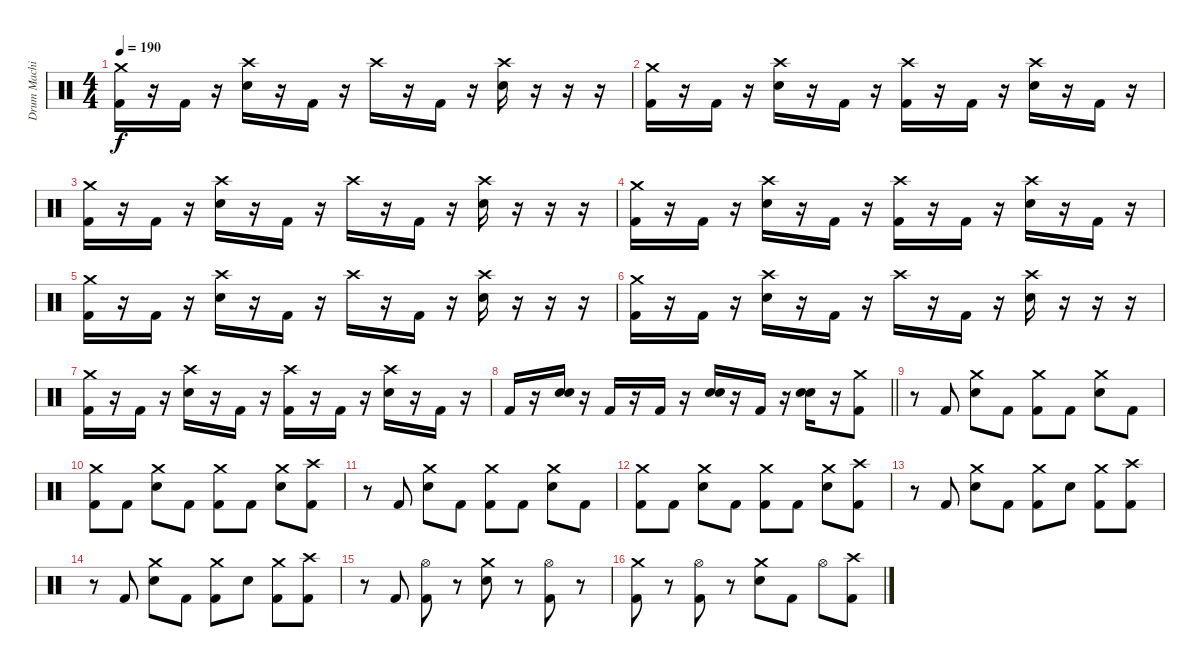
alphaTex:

\track ("Drum Machine Man" "Drum Machi") {instrument percussion}
\staff {score}
\articulation defaults
\ts (4 4)
\tempo 190
\clef neutral
\ks c
("Crash medium (hit)" "Kick (hit) 2").16{dy f} r.16 "Kick (hit) 2".16 r.16 ("Crash high (hit)" "Electric Snare (hit)").16 r.16 "Kick (hit) 2".16 r.16 "Crash high (hit)".16 r.16 "Kick (hit) 2".16 r.16 ("Crash high (hit)" "Electric Snare (hit)").16 r.16 r.16 r.16 |
("Crash medium (hit)" "Kick (hit) 2").16 r.16 "Kick (hit) 2".16 r.16 ("Crash high (hit)" "Electric Snare (hit)").16 r.16 "Kick (hit) 2".16 r.16 ("Crash high (hit)" "Kick (hit) 2").16 r.16 "Kick (hit) 2".16 r.16 ("Crash high (hit)" "Electric Snare (hit)").16 r.16 "Kick (hit) 2".16 r.16 |
("Crash medium (hit)" "Kick (hit) 2").16 r.16 "Kick (hit) 2".16 r.16 ("Crash high (hit)" "Electric Snare (hit)").16 r.16 "Kick (hit) 2".16 r.16 "Crash high (hit)".16 r.16 "Kick (hit) 2".16 r.16 ("Crash high (hit)" "Electric Snare (hit)").16 r.16 r.16 r.16 |
("Crash medium (hit)" "Kick (hit) 2").16 r.16 "Kick (hit) 2".16 r.16 ("Crash high (hit)" "Electric Snare (hit)").16 r.16 "Kick (hit) 2".16 r.16 ("Crash high (hit)" "Kick (hit) 2").16 r.16 "Kick (hit) 2".16 r.16 ("Crash high (hit)" "Electric Snare (hit)").16 r.16 "Kick (hit) 2".16 r.16 |
("Crash medium (hit)" "Kick (hit) 2").16 r.16 "Kick (hit) 2".16 r.16 ("Crash high (hit)" "Electric Snare (hit)").16 r.16 "Kick (hit) 2".16 r.16 "Crash high (hit)".16 r.16 "Kick (hit) 2".16 r.16 ("Crash high (hit)" "Electric Snare (hit)").16 r.16 r.16 r.16 |
("Crash medium (hit)" "Kick (hit) 2").16 r.16 "Kick (hit) 2".16 r.16 ("Crash high (hit)" "Electric Snare (hit)").16 r.16 "Kick (hit) 2".16 r.16 "Crash high (hit)".16 r.16 "Kick (hit) 2".16 r.16 ("Crash high (hit)" "Electric Snare (hit)").16 r.16 r.16 r.16 |
("Crash medium (hit)" "Kick (hit) 2").16 r.16 "Kick (hit) 2".16 r.16 ("Crash high (hit)" "Electric Snare (hit)").16 r.16 "Kick (hit) 2".16 r.16 ("Crash high (hit)" "Kick (hit) 2").16 r.16 "Kick (hit) 2".16 r.16 ("Crash high (hit)" "Electric Snare (hit)").16 r.16 "Kick (hit) 2".16 r.16 |
\barLineRight lightlight "Kick (hit) 2".16
r.16 ("Electric Snare (hit)" "Electric Snare (hit)").16{bd 60} r.16 "Kick (hit) 2".16 r.16 "Kick (hit) 2".16 r.16 ("Electric Snare (hit)" "Electric Snare (hit)").16{bd 60} r.16 "Kick (hit) 2".16 r.16 ("Electric Snare (hit)" "Electric Snare (hit)").16{bd 60} r.16 ("Crash medium (hit)" "Kick (hit) 2").8 |
r.8 "Kick (hit) 2".8 ("Crash medium (hit)" "Electric Snare (hit)").8 "Kick (hit) 2".8 ("Crash medium (hit)" "Kick (hit) 2").8 "Kick (hit) 2".8 ("Crash medium (hit)" "Electric Snare (hit)").8 "Kick (hit) 2".8 |
("Crash medium (hit)" "Kick (hit) 2").8 "Kick (hit) 2".8 ("Crash medium (hit)" "Electric Snare (hit)").8 "Kick (hit) 2".8 ("Crash medium (hit)" "Kick (hit) 2").8 "Kick (hit) 2".8 ("Crash medium (hit)" "Electric Snare (hit)").8 ("Crash high (hit)" "Kick (hit) 2").8 |
r.8 "Kick (hit) 2".8 ("Crash medium (hit)" "Electric Snare (hit)").8 "Kick (hit) 2".8 ("Crash medium (hit)" "Kick (hit) 2").8 "Kick (hit) 2".8 ("Crash medium (hit)" "Electric Snare (hit)").8 "Kick (hit) 2".8 |
("Crash medium (hit)" "Kick (hit) 2").8 "Kick (hit) 2".8 ("Crash medium (hit)" "Electric Snare (hit)").8 "Kick (hit) 2".8 ("Crash medium (hit)" "Kick (hit) 2").8 "Kick (hit) 2".8 ("Crash medium (hit)" "Electric Snare (hit)").8 ("Crash high (hit)" "Kick (hit) 2").8 |
r.8 "Kick (hit) 2".8 ("Crash medium (hit)" "Electric Snare (hit)").8 "Kick (hit) 2".8 ("Crash medium (hit)" "Kick (hit) 2").8 "Electric Snare (hit)".8 ("Crash medium (hit)" "Kick (hit) 2").8 ("Crash high (hit)" "Kick (hit) 2").8 |
r.8 "Kick (hit) 2".8 ("Crash medium (hit)" "Electric Snare (hit)").8 "Kick (hit) 2".8 ("Crash medium (hit)" "Kick (hit) 2").8 "Electric Snare (hit)".8 ("Crash medium (hit)" "Kick (hit) 2").8 ("Crash high (hit)" "Kick (hit) 2").8 |
r.8 "Kick (hit) 2".8 ("Hi-Hat (open)" "Kick (hit) 2").8 r.8 ("Crash medium (hit)" "Electric Snare (hit)").8 r.8 ("Hi-Hat (open)" "Kick (hit) 2").8 r.8 |
("Crash medium (hit)" "Kick (hit) 2").8 r.8 ("Hi-Hat (open)" "Kick (hit) 2").8 r.8 ("Crash medium (hit)" "Electric Snare (hit)").8 "Kick (hit) 2".8 "Hi-Hat (open)".8 ("Crash high (hit)" "Kick (hit) 2").8
